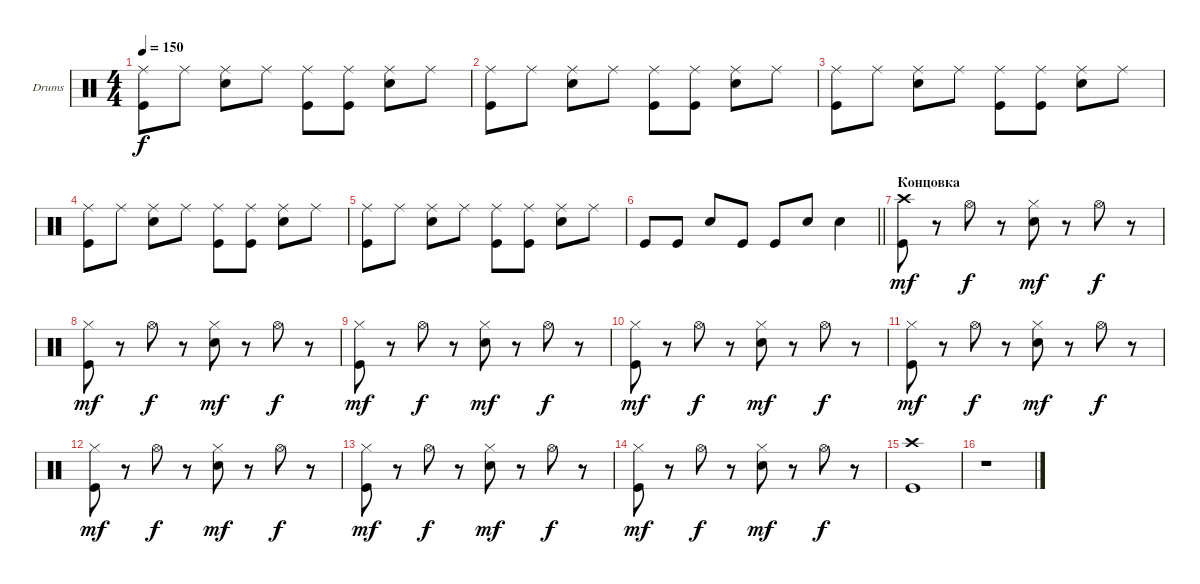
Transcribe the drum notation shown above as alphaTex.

\bracketExtendMode groupsimilarinstruments
\firstSystemTrackNameOrientation horizontal
\otherSystemsTrackNameOrientation horizontal
\track ("Drumkit" "Drums") {instrument percussion}
\staff {score}
\articulation defaults
\ts (4 4)
\tempo 150
\clef neutral
\ks c
("Ride (middle)" "Kick (hit)").8{dy f} "Ride (middle)".8 ("Ride (middle)" "Snare (hit) 2").8 "Ride (middle)".8 ("Ride (middle)" "Kick (hit)").8 ("Ride (middle)" "Kick (hit)").8 ("Ride (middle)" "Snare (hit) 2").8 "Ride (middle)".8 |
("Ride (middle)" "Kick (hit)").8 "Ride (middle)".8 ("Ride (middle)" "Snare (hit) 2").8 "Ride (middle)".8 ("Ride (middle)" "Kick (hit)").8 ("Ride (middle)" "Kick (hit)").8 ("Ride (middle)" "Snare (hit) 2").8 "Ride (middle)".8 |
("Ride (middle)" "Kick (hit)").8 "Ride (middle)".8 ("Ride (middle)" "Snare (hit) 2").8 "Ride (middle)".8 ("Ride (middle)" "Kick (hit)").8 ("Ride (middle)" "Kick (hit)").8 ("Ride (middle)" "Snare (hit) 2").8 "Ride (middle)".8 |
("Ride (middle)" "Kick (hit)").8 "Ride (middle)".8 ("Ride (middle)" "Snare (hit) 2").8 "Ride (middle)".8 ("Ride (middle)" "Kick (hit)").8 ("Ride (middle)" "Kick (hit)").8 ("Ride (middle)" "Snare (hit) 2").8 "Ride (middle)".8 |
("Ride (middle)" "Kick (hit)").8 "Ride (middle)".8 ("Ride (middle)" "Snare (hit) 2").8 "Ride (middle)".8 ("Ride (middle)" "Kick (hit)").8 ("Ride (middle)" "Kick (hit)").8 ("Ride (middle)" "Snare (hit) 2").8 "Ride (middle)".8 |
\barLineRight lightlight "Kick (hit)".8 "Kick (hit)".8 "Snare (hit) 2".8 "Kick (hit)".8 "Kick (hit)".8 "Snare (hit) 2".8 "Snare (hit) 2".4
|
\section ("" "Концовка")
("Kick (hit)" "Crash high (hit)").8{dy mf} r.8 "Hi-Hat (open)".8{dy f} r.8 ("Snare (hit) 2" "Hi-Hat (closed)").8{dy mf} r.8 "Hi-Hat (open)".8{dy f} r.8 |
("Kick (hit)" "Hi-Hat (closed)").8{dy mf} r.8 "Hi-Hat (open)".8{dy f} r.8 ("Snare (hit) 2" "Hi-Hat (closed)").8{dy mf} r.8 "Hi-Hat (open)".8{dy f} r.8 |
("Kick (hit)" "Hi-Hat (closed)").8{dy mf} r.8 "Hi-Hat (open)".8{dy f} r.8 ("Snare (hit) 2" "Hi-Hat (closed)").8{dy mf} r.8 "Hi-Hat (open)".8{dy f} r.8 |
("Kick (hit)" "Hi-Hat (closed)").8{dy mf} r.8 "Hi-Hat (open)".8{dy f} r.8 ("Snare (hit) 2" "Hi-Hat (closed)").8{dy mf} r.8 "Hi-Hat (open)".8{dy f} r.8 |
("Kick (hit)" "Hi-Hat (closed)").8{dy mf} r.8 "Hi-Hat (open)".8{dy f} r.8 ("Snare (hit) 2" "Hi-Hat (closed)").8{dy mf} r.8 "Hi-Hat (open)".8{dy f} r.8 |
("Kick (hit)" "Hi-Hat (closed)").8{dy mf} r.8 "Hi-Hat (open)".8{dy f} r.8 ("Snare (hit) 2" "Hi-Hat (closed)").8{dy mf} r.8 "Hi-Hat (open)".8{dy f} r.8 |
("Kick (hit)" "Hi-Hat (closed)").8{dy mf} r.8 "Hi-Hat (open)".8{dy f} r.8 ("Snare (hit) 2" "Hi-Hat (closed)").8{dy mf} r.8 "Hi-Hat (open)".8{dy f} r.8 |
("Kick (hit)" "Hi-Hat (closed)").8{dy mf} r.8 "Hi-Hat (open)".8{dy f} r.8 ("Snare (hit) 2" "Hi-Hat (closed)").8{dy mf} r.8 "Hi-Hat (open)".8{dy f} r.8 |
("Crash high (hit)" "Kick (hit)").1 |
r.1
